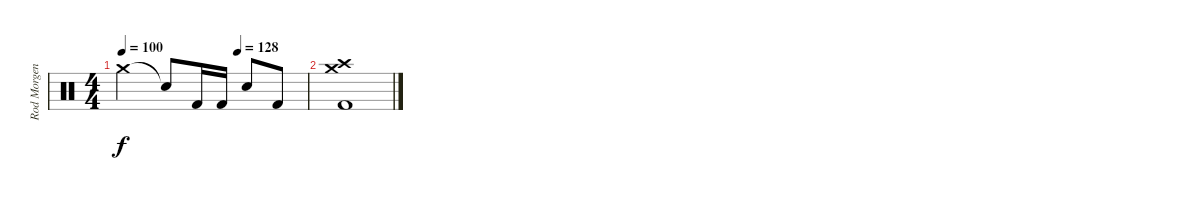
\track ("Rod Morgenstein" "Rod Morgen") {instrument percussion}
\staff {score}
\articulation defaults
\ts (4 4)
\tempo 100
\tempo (128 0.625)
\clef neutral
\ks c "Crash medium (hit)"{t}.2{dy f} "Snare (hit)"{t}.8 "Kick (hit) 2".16 "Kick (hit) 2".16 "Snare (hit) 2".8 "Kick (hit) 2".8
|
("Crash medium (hit)" "Crash high (hit)" "Kick (hit) 2").1
